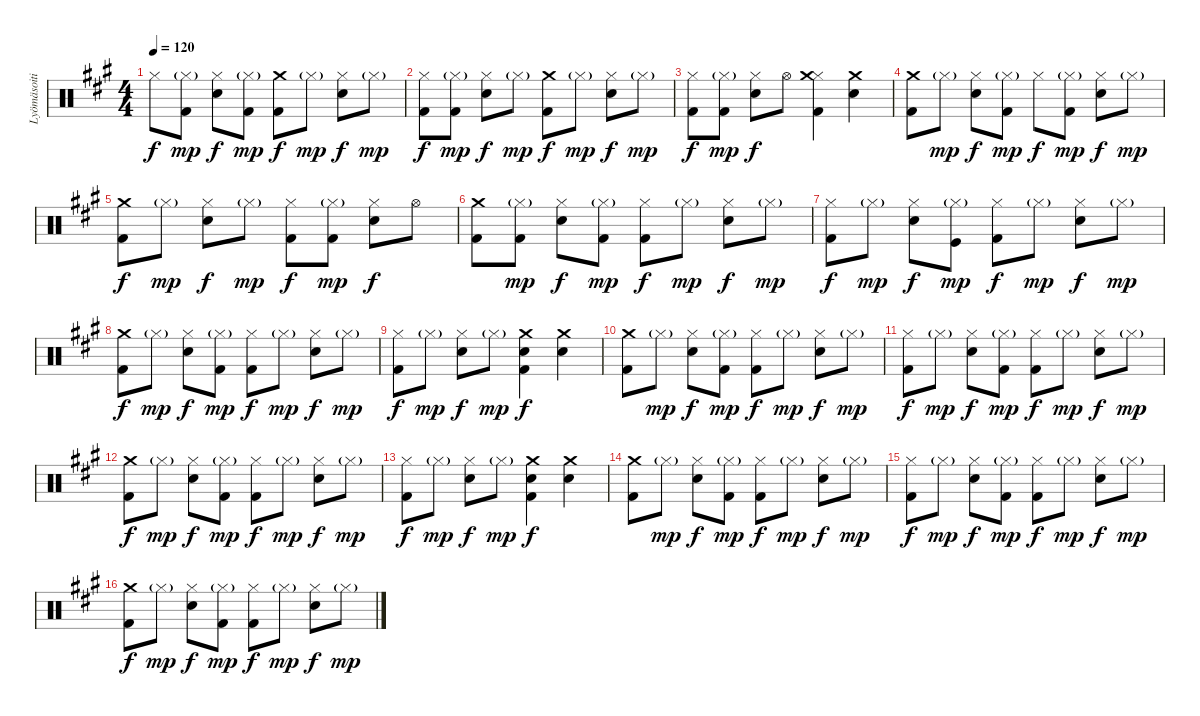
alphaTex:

\track ("Lyömäsoitin" "Lyömäsoiti") {instrument percussion}
\staff {score}
\articulation defaults
\ts (4 4)
\tempo 120
\clef neutral
\ks f#minor "Hi-Hat (closed)".8{dy f}
("Kick (hit) 2" "Hi-Hat (closed)"{g}).8{dy mp} ("Hi-Hat (closed)" "Snare (hit) 2").8{dy f} ("Hi-Hat (closed)"{g} "Kick (hit) 2").8{dy mp} ("Kick (hit) 2" "Crash medium (hit)").8{dy f} "Hi-Hat (closed)"{g}.8{dy mp} ("Hi-Hat (closed)" "Snare (hit) 2").8{dy f} "Hi-Hat (closed)"{g}.8{dy mp} |
("Hi-Hat (closed)" "Kick (hit) 2").8{dy f} ("Hi-Hat (closed)"{g} "Kick (hit) 2").8{dy mp} ("Hi-Hat (closed)" "Snare (hit) 2").8{dy f} "Hi-Hat (closed)"{g}.8{dy mp} ("Kick (hit) 2" "Crash medium (hit)").8{dy f} "Hi-Hat (closed)"{g}.8{dy mp} ("Hi-Hat (closed)" "Snare (hit) 2").8{dy f} "Hi-Hat (closed)"{g}.8{dy mp} |
("Kick (hit) 2" "Hi-Hat (closed)").8{dy f} ("Hi-Hat (closed)"{g} "Kick (hit) 2").8{dy mp} ("Hi-Hat (closed)" "Snare (hit) 2").8{dy f} "Hi-Hat (open)".8 ("Hi-Hat (closed)" "Kick (hit) 2" "Crash medium (hit)").4 ("Snare (hit) 2" "Crash medium (hit)").4 |
("Kick (hit) 2" "Crash medium (hit)").8 "Hi-Hat (closed)"{g}.8{dy mp} ("Hi-Hat (closed)" "Snare (hit) 2").8{dy f} ("Hi-Hat (closed)"{g} "Kick (hit) 2").8{dy mp} "Hi-Hat (closed)".8{dy f} ("Hi-Hat (closed)"{g} "Kick (hit) 2").8{dy mp} ("Hi-Hat (closed)" "Snare (hit) 2").8{dy f} "Hi-Hat (closed)"{g}.8{dy mp} |
("Kick (hit) 2" "Crash medium (hit)").8{dy f} "Hi-Hat (closed)"{g}.8{dy mp} ("Hi-Hat (closed)" "Snare (hit) 2").8{dy f} "Hi-Hat (closed)"{g}.8{dy mp} ("Hi-Hat (closed)" "Kick (hit) 2").8{dy f} ("Hi-Hat (closed)"{g} "Kick (hit) 2").8{dy mp} ("Hi-Hat (closed)" "Snare (hit) 2").8{dy f} "Hi-Hat (open)".8 |
("Kick (hit) 2" "Crash medium (hit)").8 ("Kick (hit) 2" "Hi-Hat (closed)"{g}).8{dy mp} ("Snare (hit) 2" "Hi-Hat (closed)").8{dy f} ("Hi-Hat (closed)"{g} "Kick (hit) 2").8{dy mp} ("Hi-Hat (closed)" "Kick (hit) 2").8{dy f} "Hi-Hat (closed)"{g}.8{dy mp} ("Hi-Hat (closed)" "Snare (hit) 2").8{dy f} "Hi-Hat (closed)"{g}.8{dy mp} |
("Hi-Hat (closed)" "Kick (hit) 2").8{dy f} "Hi-Hat (closed)"{g}.8{dy mp} ("Hi-Hat (closed)" "Snare (hit) 2").8{dy f} ("Hi-Hat (closed)"{g} "Kick (hit)").8{dy mp} ("Hi-Hat (closed)" "Kick (hit) 2").8{dy f} "Hi-Hat (closed)"{g}.8{dy mp} ("Hi-Hat (closed)" "Snare (hit) 2").8{dy f} "Hi-Hat (closed)"{g}.8{dy mp} |
("Kick (hit) 2" "Crash medium (hit)").8{dy f} "Hi-Hat (closed)"{g}.8{dy mp} ("Hi-Hat (closed)" "Snare (hit) 2").8{dy f} ("Hi-Hat (closed)"{g} "Kick (hit) 2").8{dy mp} ("Hi-Hat (closed)" "Kick (hit) 2").8{dy f} "Hi-Hat (closed)"{g}.8{dy mp} ("Hi-Hat (closed)" "Snare (hit) 2").8{dy f} "Hi-Hat (closed)"{g}.8{dy mp} |
("Kick (hit) 2" "Hi-Hat (closed)").8{dy f} "Hi-Hat (closed)"{g}.8{dy mp} ("Hi-Hat (closed)" "Snare (hit) 2").8{dy f} "Hi-Hat (closed)"{g}.8{dy mp} ("Snare (hit) 2" "Crash medium (hit)" "Kick (hit) 2").4{dy f} ("Snare (hit) 2" "Crash medium (hit)").4 |
("Kick (hit) 2" "Crash medium (hit)").8 "Hi-Hat (closed)"{g}.8{dy mp} ("Hi-Hat (closed)" "Snare (hit) 2").8{dy f} ("Hi-Hat (closed)"{g} "Kick (hit) 2").8{dy mp} ("Hi-Hat (closed)" "Kick (hit) 2").8{dy f} "Hi-Hat (closed)"{g}.8{dy mp} ("Hi-Hat (closed)" "Snare (hit) 2").8{dy f} "Hi-Hat (closed)"{g}.8{dy mp} |
("Hi-Hat (closed)" "Kick (hit) 2").8{dy f} "Hi-Hat (closed)"{g}.8{dy mp} ("Hi-Hat (closed)" "Snare (hit) 2").8{dy f} ("Hi-Hat (closed)"{g} "Kick (hit) 2").8{dy mp} ("Hi-Hat (closed)" "Kick (hit) 2").8{dy f} "Hi-Hat (closed)"{g}.8{dy mp} ("Hi-Hat (closed)" "Snare (hit) 2").8{dy f} "Hi-Hat (closed)"{g}.8{dy mp} |
("Kick (hit) 2" "Crash medium (hit)").8{dy f} "Hi-Hat (closed)"{g}.8{dy mp} ("Hi-Hat (closed)" "Snare (hit) 2").8{dy f} ("Hi-Hat (closed)"{g} "Kick (hit) 2").8{dy mp} ("Hi-Hat (closed)" "Kick (hit) 2").8{dy f} "Hi-Hat (closed)"{g}.8{dy mp} ("Hi-Hat (closed)" "Snare (hit) 2").8{dy f} "Hi-Hat (closed)"{g}.8{dy mp} |
("Kick (hit) 2" "Hi-Hat (closed)").8{dy f} "Hi-Hat (closed)"{g}.8{dy mp} ("Hi-Hat (closed)" "Snare (hit) 2").8{dy f} "Hi-Hat (closed)"{g}.8{dy mp} ("Snare (hit) 2" "Crash medium (hit)" "Kick (hit) 2").4{dy f} ("Snare (hit) 2" "Crash medium (hit)").4 |
("Kick (hit) 2" "Crash medium (hit)").8 "Hi-Hat (closed)"{g}.8{dy mp} ("Hi-Hat (closed)" "Snare (hit) 2").8{dy f} ("Hi-Hat (closed)"{g} "Kick (hit) 2").8{dy mp} ("Hi-Hat (closed)" "Kick (hit) 2").8{dy f} "Hi-Hat (closed)"{g}.8{dy mp} ("Hi-Hat (closed)" "Snare (hit) 2").8{dy f} "Hi-Hat (closed)"{g}.8{dy mp} |
("Hi-Hat (closed)" "Kick (hit) 2").8{dy f} "Hi-Hat (closed)"{g}.8{dy mp} ("Hi-Hat (closed)" "Snare (hit) 2").8{dy f} ("Hi-Hat (closed)"{g} "Kick (hit) 2").8{dy mp} ("Hi-Hat (closed)" "Kick (hit) 2").8{dy f} "Hi-Hat (closed)"{g}.8{dy mp} ("Hi-Hat (closed)" "Snare (hit) 2").8{dy f} "Hi-Hat (closed)"{g}.8{dy mp} |
("Kick (hit) 2" "Crash medium (hit)").8{dy f} "Hi-Hat (closed)"{g}.8{dy mp} ("Hi-Hat (closed)" "Snare (hit) 2").8{dy f} ("Hi-Hat (closed)"{g} "Kick (hit) 2").8{dy mp} ("Hi-Hat (closed)" "Kick (hit) 2").8{dy f} "Hi-Hat (closed)"{g}.8{dy mp} ("Hi-Hat (closed)" "Snare (hit) 2").8{dy f} "Hi-Hat (closed)"{g}.8{dy mp}
